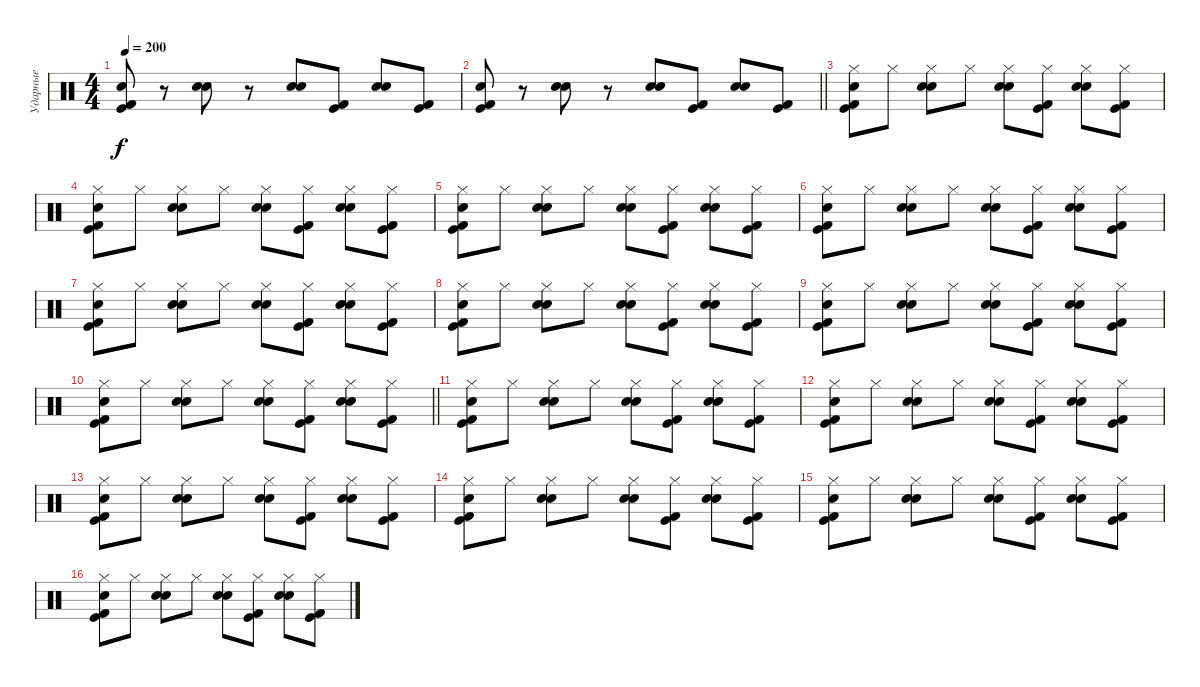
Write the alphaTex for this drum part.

\track ("Ударные" "Ударные") {instrument percussion}
\staff {score}
\articulation defaults
\ts (4 4)
\tempo 200
\clef neutral
\ks c
("Hand Clap (hit)" "Kick (hit) 2" "Kick (hit)").8{dy f} r.8 ("Hand Clap (hit)" "Electric Snare (hit)").8 r.8 ("Hand Clap (hit)" "Electric Snare (hit)").8 ("Kick (hit) 2" "Kick (hit)").8 ("Hand Clap (hit)" "Electric Snare (hit)").8 ("Kick (hit) 2" "Kick (hit)").8 |
\barLineRight lightlight
("Hand Clap (hit)" "Kick (hit) 2" "Kick (hit)").8 r.8 ("Hand Clap (hit)" "Electric Snare (hit)").8 r.8 ("Hand Clap (hit)" "Electric Snare (hit)").8 ("Kick (hit) 2" "Kick (hit)").8 ("Hand Clap (hit)" "Electric Snare (hit)").8 ("Kick (hit) 2" "Kick (hit)").8 |
("Hi-Hat (closed)" "Hand Clap (hit)" "Kick (hit) 2" "Kick (hit)").8 "Hi-Hat (closed)".8 ("Hi-Hat (closed)" "Hand Clap (hit)" "Electric Snare (hit)").8 "Hi-Hat (closed)".8 ("Hi-Hat (closed)" "Hand Clap (hit)" "Electric Snare (hit)").8 ("Hi-Hat (closed)" "Kick (hit) 2" "Kick (hit)").8 ("Hi-Hat (closed)" "Hand Clap (hit)" "Electric Snare (hit)").8 ("Hi-Hat (closed)" "Kick (hit) 2" "Kick (hit)").8 |
("Hi-Hat (closed)" "Hand Clap (hit)" "Kick (hit) 2" "Kick (hit)").8 "Hi-Hat (closed)".8 ("Hi-Hat (closed)" "Hand Clap (hit)" "Electric Snare (hit)").8 "Hi-Hat (closed)".8 ("Hi-Hat (closed)" "Hand Clap (hit)" "Electric Snare (hit)").8 ("Hi-Hat (closed)" "Kick (hit) 2" "Kick (hit)").8 ("Hi-Hat (closed)" "Hand Clap (hit)" "Electric Snare (hit)").8 ("Hi-Hat (closed)" "Kick (hit) 2" "Kick (hit)").8 |
("Hi-Hat (closed)" "Hand Clap (hit)" "Kick (hit) 2" "Kick (hit)").8 "Hi-Hat (closed)".8 ("Hi-Hat (closed)" "Hand Clap (hit)" "Electric Snare (hit)").8 "Hi-Hat (closed)".8 ("Hi-Hat (closed)" "Hand Clap (hit)" "Electric Snare (hit)").8 ("Hi-Hat (closed)" "Kick (hit) 2" "Kick (hit)").8 ("Hi-Hat (closed)" "Hand Clap (hit)" "Electric Snare (hit)").8 ("Hi-Hat (closed)" "Kick (hit) 2" "Kick (hit)").8 |
("Hi-Hat (closed)" "Hand Clap (hit)" "Kick (hit) 2" "Kick (hit)").8 "Hi-Hat (closed)".8 ("Hi-Hat (closed)" "Hand Clap (hit)" "Electric Snare (hit)").8 "Hi-Hat (closed)".8 ("Hi-Hat (closed)" "Hand Clap (hit)" "Electric Snare (hit)").8 ("Hi-Hat (closed)" "Kick (hit) 2" "Kick (hit)").8 ("Hi-Hat (closed)" "Hand Clap (hit)" "Electric Snare (hit)").8 ("Hi-Hat (closed)" "Kick (hit) 2" "Kick (hit)").8 |
("Hi-Hat (closed)" "Hand Clap (hit)" "Kick (hit) 2" "Kick (hit)").8 "Hi-Hat (closed)".8 ("Hi-Hat (closed)" "Hand Clap (hit)" "Electric Snare (hit)").8 "Hi-Hat (closed)".8 ("Hi-Hat (closed)" "Hand Clap (hit)" "Electric Snare (hit)").8 ("Hi-Hat (closed)" "Kick (hit) 2" "Kick (hit)").8 ("Hi-Hat (closed)" "Hand Clap (hit)" "Electric Snare (hit)").8 ("Hi-Hat (closed)" "Kick (hit) 2" "Kick (hit)").8 |
("Hi-Hat (closed)" "Hand Clap (hit)" "Kick (hit) 2" "Kick (hit)").8 "Hi-Hat (closed)".8 ("Hi-Hat (closed)" "Hand Clap (hit)" "Electric Snare (hit)").8 "Hi-Hat (closed)".8 ("Hi-Hat (closed)" "Hand Clap (hit)" "Electric Snare (hit)").8 ("Hi-Hat (closed)" "Kick (hit) 2" "Kick (hit)").8 ("Hi-Hat (closed)" "Hand Clap (hit)" "Electric Snare (hit)").8 ("Hi-Hat (closed)" "Kick (hit) 2" "Kick (hit)").8 |
("Hi-Hat (closed)" "Hand Clap (hit)" "Kick (hit) 2" "Kick (hit)").8 "Hi-Hat (closed)".8 ("Hi-Hat (closed)" "Hand Clap (hit)" "Electric Snare (hit)").8 "Hi-Hat (closed)".8 ("Hi-Hat (closed)" "Hand Clap (hit)" "Electric Snare (hit)").8 ("Hi-Hat (closed)" "Kick (hit) 2" "Kick (hit)").8 ("Hi-Hat (closed)" "Hand Clap (hit)" "Electric Snare (hit)").8 ("Hi-Hat (closed)" "Kick (hit) 2" "Kick (hit)").8 |
\barLineRight lightlight
("Hi-Hat (closed)" "Hand Clap (hit)" "Kick (hit) 2" "Kick (hit)").8 "Hi-Hat (closed)".8 ("Hi-Hat (closed)" "Hand Clap (hit)" "Electric Snare (hit)").8 "Hi-Hat (closed)".8 ("Hi-Hat (closed)" "Hand Clap (hit)" "Electric Snare (hit)").8 ("Hi-Hat (closed)" "Kick (hit) 2" "Kick (hit)").8 ("Hi-Hat (closed)" "Hand Clap (hit)" "Electric Snare (hit)").8 ("Hi-Hat (closed)" "Kick (hit) 2" "Kick (hit)").8 |
("Hi-Hat (closed)" "Hand Clap (hit)" "Kick (hit) 2" "Kick (hit)").8 "Hi-Hat (closed)".8 ("Hi-Hat (closed)" "Hand Clap (hit)" "Electric Snare (hit)").8 "Hi-Hat (closed)".8 ("Hi-Hat (closed)" "Hand Clap (hit)" "Electric Snare (hit)").8 ("Hi-Hat (closed)" "Kick (hit) 2" "Kick (hit)").8 ("Hi-Hat (closed)" "Hand Clap (hit)" "Electric Snare (hit)").8 ("Hi-Hat (closed)" "Kick (hit) 2" "Kick (hit)").8 |
("Hi-Hat (closed)" "Hand Clap (hit)" "Kick (hit) 2" "Kick (hit)").8 "Hi-Hat (closed)".8 ("Hi-Hat (closed)" "Hand Clap (hit)" "Electric Snare (hit)").8 "Hi-Hat (closed)".8 ("Hi-Hat (closed)" "Hand Clap (hit)" "Electric Snare (hit)").8 ("Hi-Hat (closed)" "Kick (hit) 2" "Kick (hit)").8 ("Hi-Hat (closed)" "Hand Clap (hit)" "Electric Snare (hit)").8 ("Hi-Hat (closed)" "Kick (hit) 2" "Kick (hit)").8 |
("Hi-Hat (closed)" "Hand Clap (hit)" "Kick (hit) 2" "Kick (hit)").8 "Hi-Hat (closed)".8 ("Hi-Hat (closed)" "Hand Clap (hit)" "Electric Snare (hit)").8 "Hi-Hat (closed)".8 ("Hi-Hat (closed)" "Hand Clap (hit)" "Electric Snare (hit)").8 ("Hi-Hat (closed)" "Kick (hit) 2" "Kick (hit)").8 ("Hi-Hat (closed)" "Hand Clap (hit)" "Electric Snare (hit)").8 ("Hi-Hat (closed)" "Kick (hit) 2" "Kick (hit)").8 |
("Hi-Hat (closed)" "Hand Clap (hit)" "Kick (hit) 2" "Kick (hit)").8 "Hi-Hat (closed)".8 ("Hi-Hat (closed)" "Hand Clap (hit)" "Electric Snare (hit)").8 "Hi-Hat (closed)".8 ("Hi-Hat (closed)" "Hand Clap (hit)" "Electric Snare (hit)").8 ("Hi-Hat (closed)" "Kick (hit) 2" "Kick (hit)").8 ("Hi-Hat (closed)" "Hand Clap (hit)" "Electric Snare (hit)").8 ("Hi-Hat (closed)" "Kick (hit) 2" "Kick (hit)").8 |
("Hi-Hat (closed)" "Hand Clap (hit)" "Kick (hit) 2" "Kick (hit)").8 "Hi-Hat (closed)".8 ("Hi-Hat (closed)" "Hand Clap (hit)" "Electric Snare (hit)").8 "Hi-Hat (closed)".8 ("Hi-Hat (closed)" "Hand Clap (hit)" "Electric Snare (hit)").8 ("Hi-Hat (closed)" "Kick (hit) 2" "Kick (hit)").8 ("Hi-Hat (closed)" "Hand Clap (hit)" "Electric Snare (hit)").8 ("Hi-Hat (closed)" "Kick (hit) 2" "Kick (hit)").8 |
("Hi-Hat (closed)" "Hand Clap (hit)" "Kick (hit) 2" "Kick (hit)").8 "Hi-Hat (closed)".8 ("Hi-Hat (closed)" "Hand Clap (hit)" "Electric Snare (hit)").8 "Hi-Hat (closed)".8 ("Hi-Hat (closed)" "Hand Clap (hit)" "Electric Snare (hit)").8 ("Hi-Hat (closed)" "Kick (hit) 2" "Kick (hit)").8 ("Hi-Hat (closed)" "Hand Clap (hit)" "Electric Snare (hit)").8 ("Hi-Hat (closed)" "Kick (hit) 2" "Kick (hit)").8
